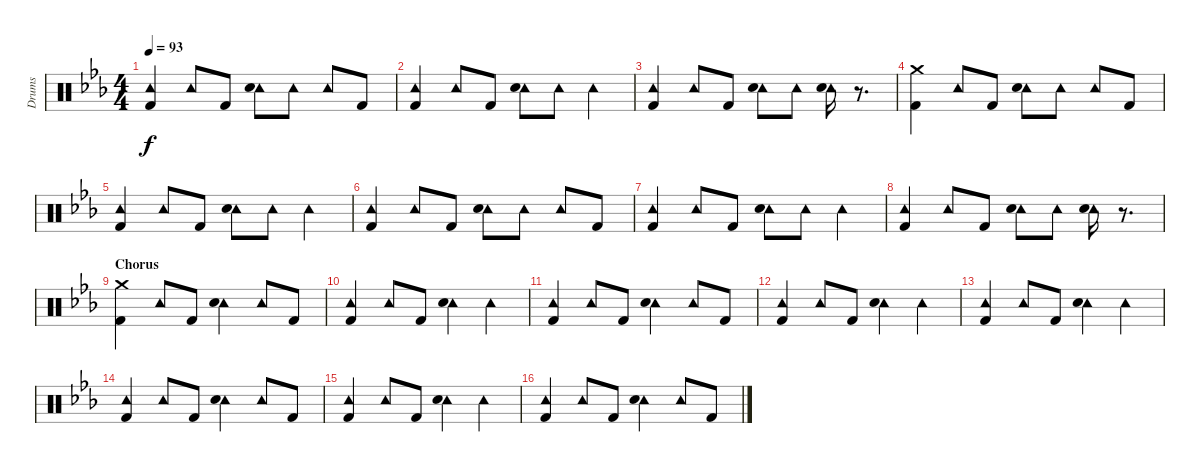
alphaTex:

\track ("Drums" "Drums") {instrument percussion}
\staff {score}
\articulation defaults
\ts (4 4)
\tempo 93
\clef neutral
\ks eb
("Tambourine (hit)" "Kick (hit) 2").4{dy f} "Tambourine (hit)".8 "Kick (hit) 2".8 ("Tambourine (hit)" "Snare (hit) 2").8 "Tambourine (hit)".8 "Tambourine (hit)".8 "Kick (hit) 2".8 |
("Tambourine (hit)" "Kick (hit) 2").4 "Tambourine (hit)".8 "Kick (hit) 2".8 ("Tambourine (hit)" "Snare (hit) 2").8 "Tambourine (hit)".8 "Tambourine (hit)".4 |
("Tambourine (hit)" "Kick (hit) 2").4 "Tambourine (hit)".8 "Kick (hit) 2".8 ("Tambourine (hit)" "Snare (hit) 2").8 "Tambourine (hit)".8 ("Tambourine (hit)" "Snare (hit) 2").16 r.8{d} |
("Crash medium (hit)" "Kick (hit) 2").4 "Tambourine (hit)".8 "Kick (hit) 2".8 ("Tambourine (hit)" "Snare (hit) 2").8 "Tambourine (hit)".8 "Tambourine (hit)".8 "Kick (hit) 2".8 |
("Tambourine (hit)" "Kick (hit) 2").4 "Tambourine (hit)".8 "Kick (hit) 2".8 ("Tambourine (hit)" "Snare (hit) 2").8 "Tambourine (hit)".8 "Tambourine (hit)".4 |
("Tambourine (hit)" "Kick (hit) 2").4 "Tambourine (hit)".8 "Kick (hit) 2".8 ("Tambourine (hit)" "Snare (hit) 2").8 "Tambourine (hit)".8 "Tambourine (hit)".8 "Kick (hit) 2".8 |
("Tambourine (hit)" "Kick (hit) 2").4 "Tambourine (hit)".8 "Kick (hit) 2".8 ("Tambourine (hit)" "Snare (hit) 2").8 "Tambourine (hit)".8 "Tambourine (hit)".4 |
("Tambourine (hit)" "Kick (hit) 2").4 "Tambourine (hit)".8 "Kick (hit) 2".8 ("Tambourine (hit)" "Snare (hit) 2").8 "Tambourine (hit)".8 ("Tambourine (hit)" "Snare (hit) 2").16 r.8{d} |
\section ("" "Chorus")
("Crash medium (hit)" "Kick (hit) 2").4 "Tambourine (hit)".8 "Kick (hit) 2".8 ("Tambourine (hit)" "Snare (hit) 2").4 "Tambourine (hit)".8 "Kick (hit) 2".8 |
("Tambourine (hit)" "Kick (hit) 2").4 "Tambourine (hit)".8 "Kick (hit) 2".8 ("Tambourine (hit)" "Snare (hit) 2").4 "Tambourine (hit)".4 |
("Tambourine (hit)" "Kick (hit) 2").4 "Tambourine (hit)".8 "Kick (hit) 2".8 ("Tambourine (hit)" "Snare (hit) 2").4 "Tambourine (hit)".8 "Kick (hit) 2".8 |
("Tambourine (hit)" "Kick (hit) 2").4 "Tambourine (hit)".8 "Kick (hit) 2".8 ("Tambourine (hit)" "Snare (hit) 2").4 "Tambourine (hit)".4 |
("Tambourine (hit)" "Kick (hit) 2").4 "Tambourine (hit)".8 "Kick (hit) 2".8 ("Tambourine (hit)" "Snare (hit) 2").4 "Tambourine (hit)".4 |
("Tambourine (hit)" "Kick (hit) 2").4 "Tambourine (hit)".8 "Kick (hit) 2".8 ("Tambourine (hit)" "Snare (hit) 2").4 "Tambourine (hit)".8 "Kick (hit) 2".8 |
("Tambourine (hit)" "Kick (hit) 2").4 "Tambourine (hit)".8 "Kick (hit) 2".8 ("Tambourine (hit)" "Snare (hit) 2").4 "Tambourine (hit)".4 |
("Tambourine (hit)" "Kick (hit) 2").4 "Tambourine (hit)".8 "Kick (hit) 2".8 ("Tambourine (hit)" "Snare (hit) 2").4 "Tambourine (hit)".8 "Kick (hit) 2".8
